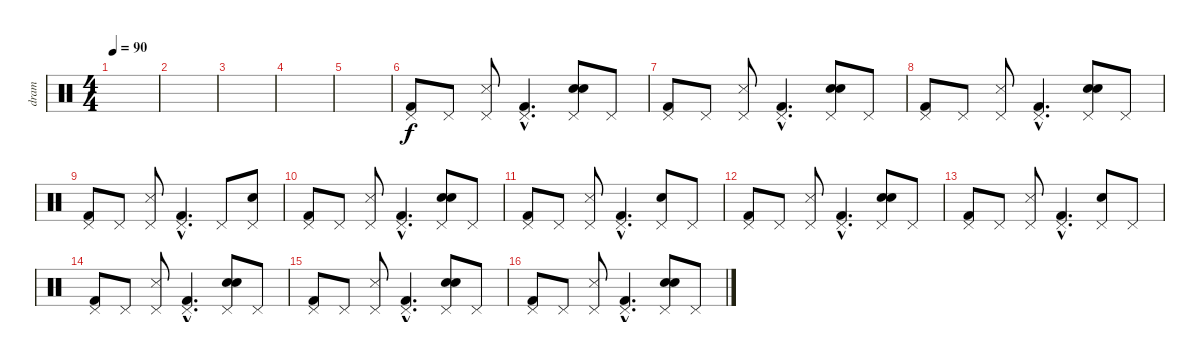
\track ("dram" "dram") {instrument percussion}
\staff {score}
\articulation defaults
\ts (4 4)
\tempo 90
\clef neutral
\ks c
|
|
|
|
|
("Pedal Hi-Hat (hit)" "Kick (hit) 2").8 "Pedal Hi-Hat (hit)".8 ("Pedal Hi-Hat (hit)" "Snare (side stick) 3").8 ("Pedal Hi-Hat (hit)"{hac} "Kick (hit) 2"{hac}).4{d} ("Pedal Hi-Hat (hit)" "Electric Snare (hit)" "Hand Clap (hit)").8 "Pedal Hi-Hat (hit)".8 |
("Pedal Hi-Hat (hit)" "Kick (hit) 2").8 "Pedal Hi-Hat (hit)".8 ("Pedal Hi-Hat (hit)" "Snare (side stick) 3").8 ("Pedal Hi-Hat (hit)"{hac} "Kick (hit) 2"{hac}).4{d} ("Pedal Hi-Hat (hit)" "Electric Snare (hit)" "Hand Clap (hit)").8 "Pedal Hi-Hat (hit)".8 |
("Pedal Hi-Hat (hit)" "Kick (hit) 2").8 "Pedal Hi-Hat (hit)".8 ("Pedal Hi-Hat (hit)" "Snare (side stick) 3").8 ("Pedal Hi-Hat (hit)"{hac} "Kick (hit) 2"{hac}).4{d} ("Pedal Hi-Hat (hit)" "Electric Snare (hit)" "Hand Clap (hit)").8 "Pedal Hi-Hat (hit)".8 |
("Pedal Hi-Hat (hit)" "Kick (hit) 2").8 "Pedal Hi-Hat (hit)".8 ("Pedal Hi-Hat (hit)" "Snare (side stick) 3").8 ("Pedal Hi-Hat (hit)"{hac} "Kick (hit) 2"{hac}).4{d} "Pedal Hi-Hat (hit)".8 ("Pedal Hi-Hat (hit)" "Electric Snare (hit)").8 |
("Pedal Hi-Hat (hit)" "Kick (hit) 2").8 "Pedal Hi-Hat (hit)".8 ("Pedal Hi-Hat (hit)" "Snare (side stick) 3").8 ("Pedal Hi-Hat (hit)"{hac} "Kick (hit) 2"{hac}).4{d} ("Pedal Hi-Hat (hit)" "Hand Clap (hit)" "Electric Snare (hit)").8 "Pedal Hi-Hat (hit)".8 |
("Pedal Hi-Hat (hit)" "Kick (hit) 2").8 "Pedal Hi-Hat (hit)".8 ("Pedal Hi-Hat (hit)" "Snare (side stick) 3").8 ("Pedal Hi-Hat (hit)"{hac} "Kick (hit) 2"{hac}).4{d} ("Pedal Hi-Hat (hit)" "Electric Snare (hit)").8 "Pedal Hi-Hat (hit)".8 |
("Pedal Hi-Hat (hit)" "Kick (hit) 2").8 "Pedal Hi-Hat (hit)".8 ("Pedal Hi-Hat (hit)" "Snare (side stick) 3").8 ("Pedal Hi-Hat (hit)"{hac} "Kick (hit) 2"{hac}).4{d} ("Pedal Hi-Hat (hit)" "Electric Snare (hit)" "Hand Clap (hit)").8 "Pedal Hi-Hat (hit)".8 |
("Pedal Hi-Hat (hit)" "Kick (hit) 2").8 "Pedal Hi-Hat (hit)".8 ("Pedal Hi-Hat (hit)" "Snare (side stick) 3").8 ("Pedal Hi-Hat (hit)"{hac} "Kick (hit) 2"{hac}).4{d} ("Pedal Hi-Hat (hit)" "Hand Clap (hit)").8 "Pedal Hi-Hat (hit)".8 |
("Pedal Hi-Hat (hit)" "Kick (hit) 2").8 "Pedal Hi-Hat (hit)".8 ("Pedal Hi-Hat (hit)" "Snare (side stick) 3").8 ("Pedal Hi-Hat (hit)"{hac} "Kick (hit) 2"{hac}).4{d} ("Pedal Hi-Hat (hit)" "Electric Snare (hit)" "Hand Clap (hit)").8 "Pedal Hi-Hat (hit)".8 |
("Pedal Hi-Hat (hit)" "Kick (hit) 2").8 "Pedal Hi-Hat (hit)".8 ("Pedal Hi-Hat (hit)" "Snare (side stick) 3").8 ("Pedal Hi-Hat (hit)"{hac} "Kick (hit) 2"{hac}).4{d} ("Pedal Hi-Hat (hit)" "Electric Snare (hit)" "Hand Clap (hit)").8 "Pedal Hi-Hat (hit)".8 |
("Pedal Hi-Hat (hit)" "Kick (hit) 2").8 "Pedal Hi-Hat (hit)".8 ("Pedal Hi-Hat (hit)" "Snare (side stick) 3").8 ("Pedal Hi-Hat (hit)"{hac} "Kick (hit) 2"{hac}).4{d} ("Pedal Hi-Hat (hit)" "Electric Snare (hit)" "Hand Clap (hit)").8 "Pedal Hi-Hat (hit)".8
